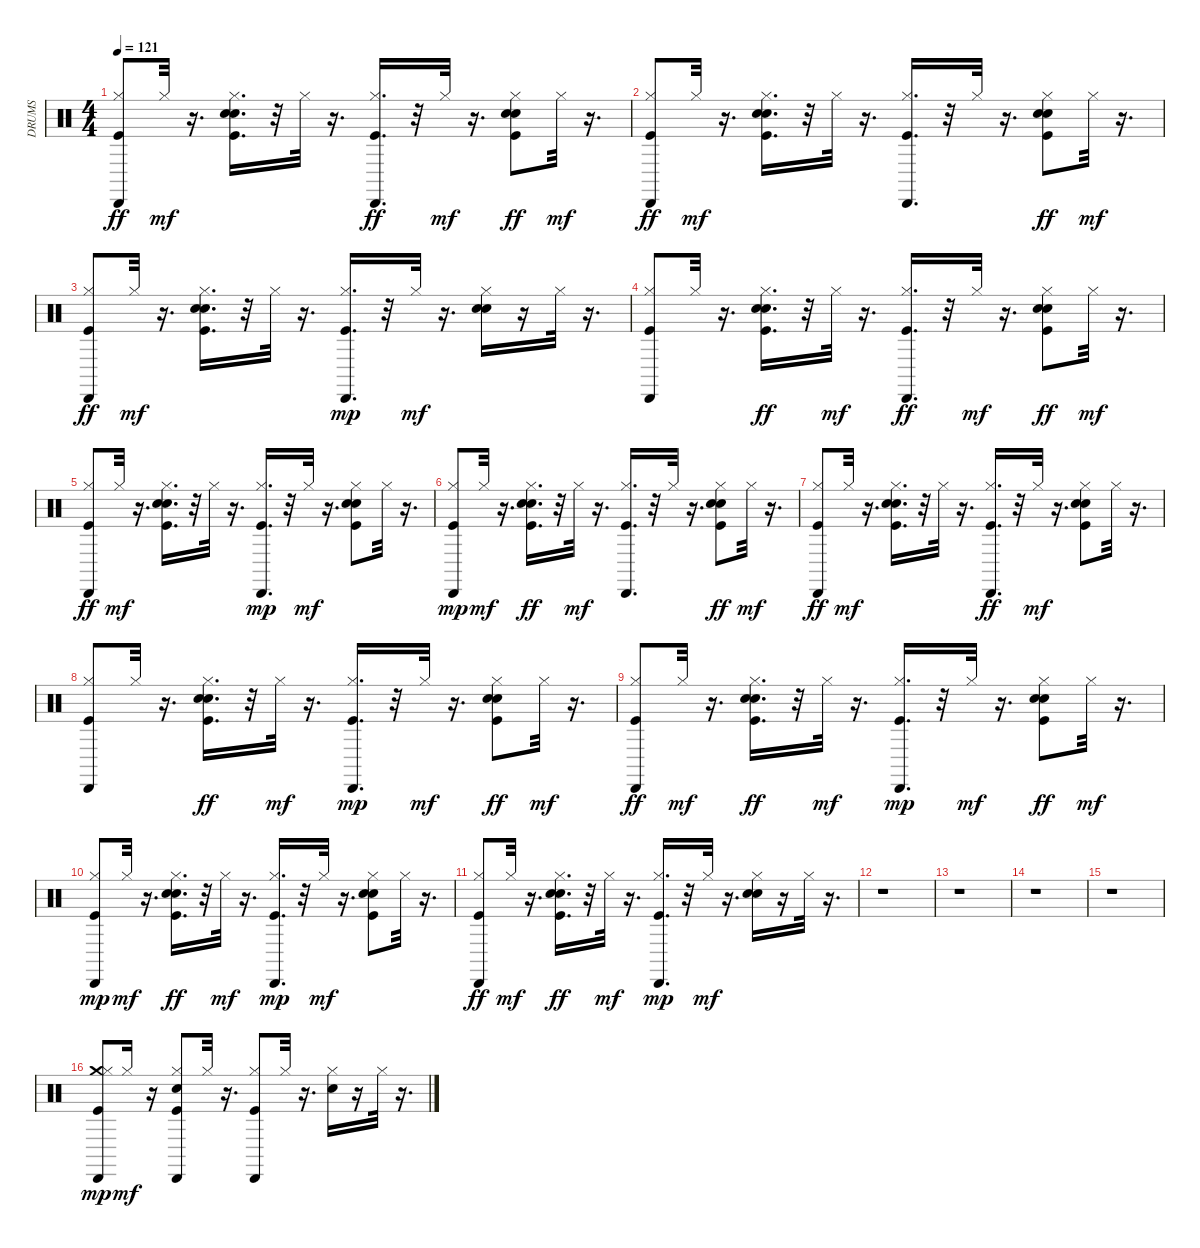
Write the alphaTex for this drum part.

\track ("DRUMS" "DRUMS") {instrument percussion}
\staff {score}
\articulation defaults
\ts (4 4)
\tempo 121
\clef neutral
\ks c
("Cabasa (hit)" "Hi-Hat (closed)" "Kick (hit)").8{dy ff} "Hi-Hat (closed)".32{dy mf} r.16{d} ("Kick (hit)" "Hand Clap (hit)" "Electric Snare (hit)" "Hi-Hat (closed)").16{d} r.32 "Hi-Hat (closed)".32 r.16{d} ("Hi-Hat (closed)" "Cabasa (hit)" "Kick (hit)").16{d dy ff} r.32 "Hi-Hat (closed)".32{dy mf} r.16{d} ("Hi-Hat (closed)" "Hand Clap (hit)" "Electric Snare (hit)" "Kick (hit)").8{dy ff} "Hi-Hat (closed)".32{dy mf} r.16{d} |
("Cabasa (hit)" "Hi-Hat (closed)" "Kick (hit)").8{dy ff} "Hi-Hat (closed)".32{dy mf} r.16{d} ("Electric Snare (hit)" "Kick (hit)" "Hand Clap (hit)" "Hi-Hat (closed)").16{d} r.32 "Hi-Hat (closed)".32 r.16{d} ("Kick (hit)" "Cabasa (hit)" "Hi-Hat (closed)").16{d} r.32 "Hi-Hat (closed)".32 r.16{d} ("Hand Clap (hit)" "Hi-Hat (closed)" "Electric Snare (hit)" "Kick (hit)").8{dy ff} "Hi-Hat (closed)".32{dy mf} r.16{d} |
("Cabasa (hit)" "Hi-Hat (closed)" "Kick (hit)").8{dy ff} "Hi-Hat (closed)".32{dy mf} r.16{d} ("Hand Clap (hit)" "Kick (hit)" "Hi-Hat (closed)" "Electric Snare (hit)").16{d} r.32 "Hi-Hat (closed)".32 r.16{d} ("Hi-Hat (closed)" "Kick (hit)" "Cabasa (hit)").16{d dy mp} r.32 "Hi-Hat (closed)".32{dy mf} r.16{d} ("Electric Snare (hit)" "Hi-Hat (closed)" "Hand Clap (hit)").16 r.16 "Hi-Hat (closed)".32 r.16{d} |
("Cabasa (hit)" "Kick (hit)" "Hi-Hat (closed)").8 "Hi-Hat (closed)".32 r.16{d} ("Electric Snare (hit)" "Hi-Hat (closed)" "Hand Clap (hit)" "Kick (hit)").16{d dy ff} r.32 "Hi-Hat (closed)".32{dy mf} r.16{d} ("Cabasa (hit)" "Hi-Hat (closed)" "Kick (hit)").16{d dy ff} r.32 "Hi-Hat (closed)".32{dy mf} r.16{d} ("Electric Snare (hit)" "Hi-Hat (closed)" "Kick (hit)" "Hand Clap (hit)").8{dy ff} "Hi-Hat (closed)".32{dy mf} r.16{d} |
("Cabasa (hit)" "Hi-Hat (closed)" "Kick (hit)").8{dy ff} "Hi-Hat (closed)".32{dy mf} r.16{d} ("Kick (hit)" "Hand Clap (hit)" "Hi-Hat (closed)" "Electric Snare (hit)").16{d} r.32 "Hi-Hat (closed)".32 r.16{d} ("Hi-Hat (closed)" "Kick (hit)" "Cabasa (hit)").16{d dy mp} r.32 "Hi-Hat (closed)".32{dy mf} r.16{d} ("Kick (hit)" "Hand Clap (hit)" "Electric Snare (hit)" "Hi-Hat (closed)").8 "Hi-Hat (closed)".32 r.16{d} |
("Hi-Hat (closed)" "Kick (hit)" "Cabasa (hit)").8{dy mp} "Hi-Hat (closed)".32{dy mf} r.16{d} ("Hi-Hat (closed)" "Electric Snare (hit)" "Kick (hit)" "Hand Clap (hit)").16{d dy ff} r.32 "Hi-Hat (closed)".32{dy mf} r.16{d} ("Kick (hit)" "Cabasa (hit)" "Hi-Hat (closed)").16{d} r.32 "Hi-Hat (closed)".32 r.16{d} ("Hi-Hat (closed)" "Kick (hit)" "Electric Snare (hit)" "Hand Clap (hit)").8{dy ff} "Hi-Hat (closed)".32{dy mf} r.16{d} |
("Hi-Hat (closed)" "Cabasa (hit)" "Kick (hit)").8{dy ff} "Hi-Hat (closed)".32{dy mf} r.16{d} ("Electric Snare (hit)" "Kick (hit)" "Hi-Hat (closed)" "Hand Clap (hit)").16{d} r.32 "Hi-Hat (closed)".32 r.16{d} ("Cabasa (hit)" "Hi-Hat (closed)" "Kick (hit)").16{d dy ff} r.32 "Hi-Hat (closed)".32{dy mf} r.16{d} ("Electric Snare (hit)" "Kick (hit)" "Hi-Hat (closed)" "Hand Clap (hit)").8 "Hi-Hat (closed)".32 r.16{d} |
("Cabasa (hit)" "Kick (hit)" "Hi-Hat (closed)").8 "Hi-Hat (closed)".32 r.16{d} ("Hand Clap (hit)" "Hi-Hat (closed)" "Electric Snare (hit)" "Kick (hit)").16{d dy ff} r.32 "Hi-Hat (closed)".32{dy mf} r.16{d} ("Kick (hit)" "Hi-Hat (closed)" "Cabasa (hit)").16{d dy mp} r.32 "Hi-Hat (closed)".32{dy mf} r.16{d} ("Hi-Hat (closed)" "Electric Snare (hit)" "Hand Clap (hit)" "Kick (hit)").8{dy ff} "Hi-Hat (closed)".32{dy mf} r.16{d} |
("Cabasa (hit)" "Hi-Hat (closed)" "Kick (hit)").8{dy ff} "Hi-Hat (closed)".32{dy mf} r.16{d} ("Electric Snare (hit)" "Hand Clap (hit)" "Hi-Hat (closed)" "Kick (hit)").16{d dy ff} r.32 "Hi-Hat (closed)".32{dy mf} r.16{d} ("Hi-Hat (closed)" "Kick (hit)" "Cabasa (hit)").16{d dy mp} r.32 "Hi-Hat (closed)".32{dy mf} r.16{d} ("Hand Clap (hit)" "Hi-Hat (closed)" "Kick (hit)" "Electric Snare (hit)").8{dy ff} "Hi-Hat (closed)".32{dy mf} r.16{d} |
("Kick (hit)" "Hi-Hat (closed)" "Cabasa (hit)").8{dy mp} "Hi-Hat (closed)".32{dy mf} r.16{d} ("Electric Snare (hit)" "Hi-Hat (closed)" "Kick (hit)" "Hand Clap (hit)").16{d dy ff} r.32 "Hi-Hat (closed)".32{dy mf} r.16{d} ("Hi-Hat (closed)" "Kick (hit)" "Cabasa (hit)").16{d dy mp} r.32 "Hi-Hat (closed)".32{dy mf} r.16{d} ("Kick (hit)" "Hi-Hat (closed)" "Electric Snare (hit)" "Hand Clap (hit)").8 "Hi-Hat (closed)".32 r.16{d} |
("Cabasa (hit)" "Hi-Hat (closed)" "Kick (hit)").8{dy ff} "Hi-Hat (closed)".32{dy mf} r.16{d} ("Hand Clap (hit)" "Electric Snare (hit)" "Hi-Hat (closed)" "Kick (hit)").16{d dy ff} r.32 "Hi-Hat (closed)".32{dy mf} r.16{d} ("Hi-Hat (closed)" "Kick (hit)" "Cabasa (hit)").16{d dy mp} r.32 "Hi-Hat (closed)".32{dy mf} r.16{d} ("Hi-Hat (closed)" "Hand Clap (hit)" "Electric Snare (hit)").16 r.16 "Hi-Hat (closed)".32 r.16{d} |
r.1 |
r.1 |
r.1 |
r.1 |
("Crash medium (hit)" "Kick (hit)" "Hi-Hat (closed)" "Cabasa (hit)").8{dy mp} "Hi-Hat (closed)".16{dy mf} r.16 ("Electric Snare (hit)" "Kick (hit)" "Cabasa (hit)" "Hi-Hat (closed)").8 "Hi-Hat (closed)".32 r.16{d} ("Kick (hit)" "Cabasa (hit)" "Hi-Hat (closed)").8 "Hi-Hat (closed)".32 r.16{d} ("Hi-Hat (closed)" "Electric Snare (hit)").16 r.16 "Hi-Hat (closed)".32 r.16{d}
